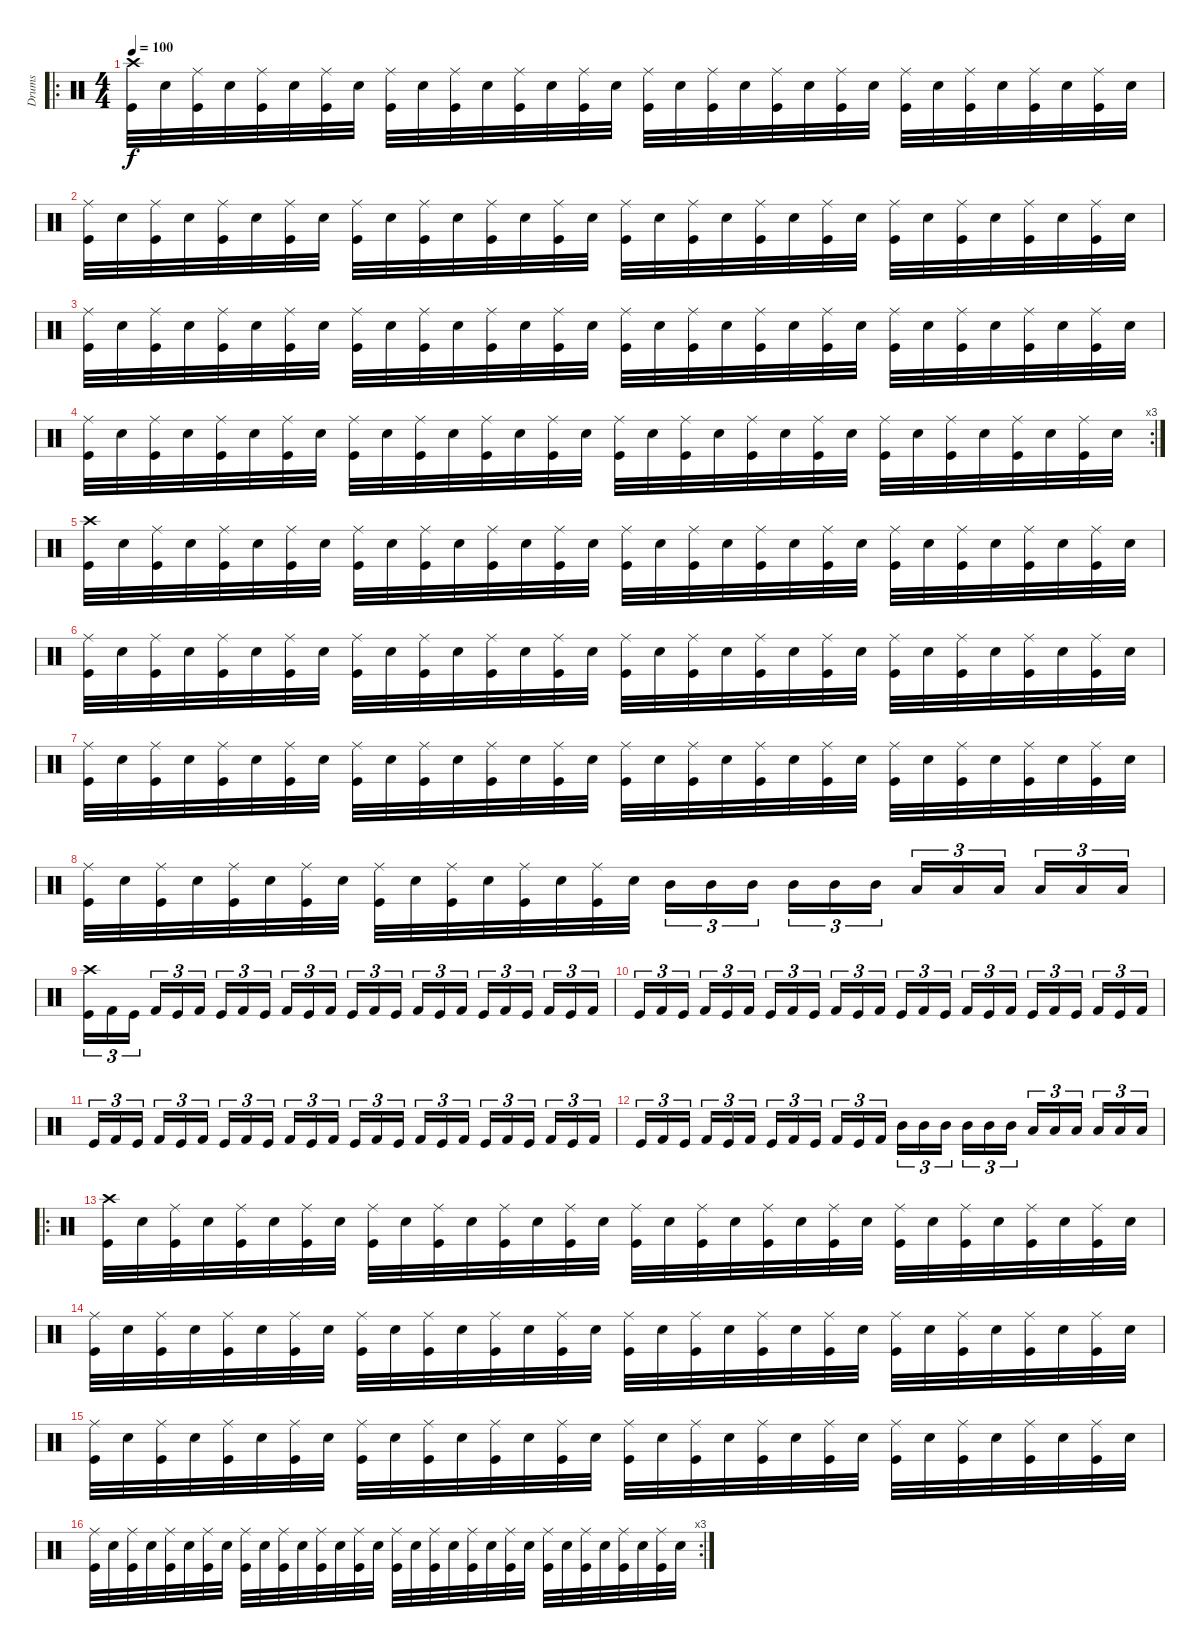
\track ("Drums" "Drums") {instrument percussion}
\staff {score}
\articulation defaults
\ro
\ts (4 4)
\tempo 100
\clef neutral
\ks c
("Crash high (hit)" "Kick (hit)").32{dy f} "Snare (hit) 2".32 ("Ride (middle)" "Kick (hit)").32 "Snare (hit) 2".32 ("Ride (middle)" "Kick (hit)").32 "Snare (hit) 2".32 ("Ride (middle)" "Kick (hit)").32 "Snare (hit) 2".32 ("Ride (middle)" "Kick (hit)").32 "Snare (hit) 2".32 ("Ride (middle)" "Kick (hit)").32 "Snare (hit) 2".32 ("Ride (middle)" "Kick (hit)").32 "Snare (hit) 2".32 ("Ride (middle)" "Kick (hit)").32 "Snare (hit) 2".32 ("Ride (middle)" "Kick (hit)").32 "Snare (hit) 2".32 ("Ride (middle)" "Kick (hit)").32 "Snare (hit) 2".32 ("Ride (middle)" "Kick (hit)").32 "Snare (hit) 2".32 ("Ride (middle)" "Kick (hit)").32 "Snare (hit) 2".32 ("Ride (middle)" "Kick (hit)").32 "Snare (hit) 2".32 ("Ride (middle)" "Kick (hit)").32 "Snare (hit) 2".32 ("Ride (middle)" "Kick (hit)").32 "Snare (hit) 2".32 ("Ride (middle)" "Kick (hit)").32 "Snare (hit) 2".32 |
("Ride (middle)" "Kick (hit)").32 "Snare (hit) 2".32 ("Ride (middle)" "Kick (hit)").32 "Snare (hit) 2".32 ("Ride (middle)" "Kick (hit)").32 "Snare (hit) 2".32 ("Ride (middle)" "Kick (hit)").32 "Snare (hit) 2".32 ("Ride (middle)" "Kick (hit)").32 "Snare (hit) 2".32 ("Ride (middle)" "Kick (hit)").32 "Snare (hit) 2".32 ("Ride (middle)" "Kick (hit)").32 "Snare (hit) 2".32 ("Ride (middle)" "Kick (hit)").32 "Snare (hit) 2".32 ("Ride (middle)" "Kick (hit)").32 "Snare (hit) 2".32 ("Ride (middle)" "Kick (hit)").32 "Snare (hit) 2".32 ("Ride (middle)" "Kick (hit)").32 "Snare (hit) 2".32 ("Ride (middle)" "Kick (hit)").32 "Snare (hit) 2".32 ("Ride (middle)" "Kick (hit)").32 "Snare (hit) 2".32 ("Ride (middle)" "Kick (hit)").32 "Snare (hit) 2".32 ("Ride (middle)" "Kick (hit)").32 "Snare (hit) 2".32 ("Ride (middle)" "Kick (hit)").32 "Snare (hit) 2".32 |
("Ride (middle)" "Kick (hit)").32 "Snare (hit) 2".32 ("Ride (middle)" "Kick (hit)").32 "Snare (hit) 2".32 ("Ride (middle)" "Kick (hit)").32 "Snare (hit) 2".32 ("Ride (middle)" "Kick (hit)").32 "Snare (hit) 2".32 ("Ride (middle)" "Kick (hit)").32 "Snare (hit) 2".32 ("Ride (middle)" "Kick (hit)").32 "Snare (hit) 2".32 ("Ride (middle)" "Kick (hit)").32 "Snare (hit) 2".32 ("Ride (middle)" "Kick (hit)").32 "Snare (hit) 2".32 ("Ride (middle)" "Kick (hit)").32 "Snare (hit) 2".32 ("Ride (middle)" "Kick (hit)").32 "Snare (hit) 2".32 ("Ride (middle)" "Kick (hit)").32 "Snare (hit) 2".32 ("Ride (middle)" "Kick (hit)").32 "Snare (hit) 2".32 ("Ride (middle)" "Kick (hit)").32 "Snare (hit) 2".32 ("Ride (middle)" "Kick (hit)").32 "Snare (hit) 2".32 ("Ride (middle)" "Kick (hit)").32 "Snare (hit) 2".32 ("Ride (middle)" "Kick (hit)").32 "Snare (hit) 2".32 |
\rc 3
("Ride (middle)" "Kick (hit)").32 "Snare (hit) 2".32 ("Ride (middle)" "Kick (hit)").32 "Snare (hit) 2".32 ("Ride (middle)" "Kick (hit)").32 "Snare (hit) 2".32 ("Ride (middle)" "Kick (hit)").32 "Snare (hit) 2".32 ("Ride (middle)" "Kick (hit)").32 "Snare (hit) 2".32 ("Ride (middle)" "Kick (hit)").32 "Snare (hit) 2".32 ("Ride (middle)" "Kick (hit)").32 "Snare (hit) 2".32 ("Ride (middle)" "Kick (hit)").32 "Snare (hit) 2".32 ("Ride (middle)" "Kick (hit)").32 "Snare (hit) 2".32 ("Ride (middle)" "Kick (hit)").32 "Snare (hit) 2".32 ("Ride (middle)" "Kick (hit)").32 "Snare (hit) 2".32 ("Ride (middle)" "Kick (hit)").32 "Snare (hit) 2".32 ("Ride (middle)" "Kick (hit)").32 "Snare (hit) 2".32 ("Ride (middle)" "Kick (hit)").32 "Snare (hit) 2".32 ("Ride (middle)" "Kick (hit)").32 "Snare (hit) 2".32 ("Ride (middle)" "Kick (hit)").32 "Snare (hit) 2".32 |
("Crash high (hit)" "Kick (hit)").32 "Snare (hit) 2".32 ("Ride (middle)" "Kick (hit)").32 "Snare (hit) 2".32 ("Ride (middle)" "Kick (hit)").32 "Snare (hit) 2".32 ("Ride (middle)" "Kick (hit)").32 "Snare (hit) 2".32 ("Ride (middle)" "Kick (hit)").32 "Snare (hit) 2".32 ("Ride (middle)" "Kick (hit)").32 "Snare (hit) 2".32 ("Ride (middle)" "Kick (hit)").32 "Snare (hit) 2".32 ("Ride (middle)" "Kick (hit)").32 "Snare (hit) 2".32 ("Ride (middle)" "Kick (hit)").32 "Snare (hit) 2".32 ("Ride (middle)" "Kick (hit)").32 "Snare (hit) 2".32 ("Ride (middle)" "Kick (hit)").32 "Snare (hit) 2".32 ("Ride (middle)" "Kick (hit)").32 "Snare (hit) 2".32 ("Ride (middle)" "Kick (hit)").32 "Snare (hit) 2".32 ("Ride (middle)" "Kick (hit)").32 "Snare (hit) 2".32 ("Ride (middle)" "Kick (hit)").32 "Snare (hit) 2".32 ("Ride (middle)" "Kick (hit)").32 "Snare (hit) 2".32 |
("Ride (middle)" "Kick (hit)").32 "Snare (hit) 2".32 ("Ride (middle)" "Kick (hit)").32 "Snare (hit) 2".32 ("Ride (middle)" "Kick (hit)").32 "Snare (hit) 2".32 ("Ride (middle)" "Kick (hit)").32 "Snare (hit) 2".32 ("Ride (middle)" "Kick (hit)").32 "Snare (hit) 2".32 ("Ride (middle)" "Kick (hit)").32 "Snare (hit) 2".32 ("Ride (middle)" "Kick (hit)").32 "Snare (hit) 2".32 ("Ride (middle)" "Kick (hit)").32 "Snare (hit) 2".32 ("Ride (middle)" "Kick (hit)").32 "Snare (hit) 2".32 ("Ride (middle)" "Kick (hit)").32 "Snare (hit) 2".32 ("Ride (middle)" "Kick (hit)").32 "Snare (hit) 2".32 ("Ride (middle)" "Kick (hit)").32 "Snare (hit) 2".32 ("Ride (middle)" "Kick (hit)").32 "Snare (hit) 2".32 ("Ride (middle)" "Kick (hit)").32 "Snare (hit) 2".32 ("Ride (middle)" "Kick (hit)").32 "Snare (hit) 2".32 ("Ride (middle)" "Kick (hit)").32 "Snare (hit) 2".32 |
("Ride (middle)" "Kick (hit)").32 "Snare (hit) 2".32 ("Ride (middle)" "Kick (hit)").32 "Snare (hit) 2".32 ("Ride (middle)" "Kick (hit)").32 "Snare (hit) 2".32 ("Ride (middle)" "Kick (hit)").32 "Snare (hit) 2".32 ("Ride (middle)" "Kick (hit)").32 "Snare (hit) 2".32 ("Ride (middle)" "Kick (hit)").32 "Snare (hit) 2".32 ("Ride (middle)" "Kick (hit)").32 "Snare (hit) 2".32 ("Ride (middle)" "Kick (hit)").32 "Snare (hit) 2".32 ("Ride (middle)" "Kick (hit)").32 "Snare (hit) 2".32 ("Ride (middle)" "Kick (hit)").32 "Snare (hit) 2".32 ("Ride (middle)" "Kick (hit)").32 "Snare (hit) 2".32 ("Ride (middle)" "Kick (hit)").32 "Snare (hit) 2".32 ("Ride (middle)" "Kick (hit)").32 "Snare (hit) 2".32 ("Ride (middle)" "Kick (hit)").32 "Snare (hit) 2".32 ("Ride (middle)" "Kick (hit)").32 "Snare (hit) 2".32 ("Ride (middle)" "Kick (hit)").32 "Snare (hit) 2".32 |
("Ride (middle)" "Kick (hit)").32 "Snare (hit) 2".32 ("Ride (middle)" "Kick (hit)").32 "Snare (hit) 2".32 ("Ride (middle)" "Kick (hit)").32 "Snare (hit) 2".32 ("Ride (middle)" "Kick (hit)").32 "Snare (hit) 2".32 ("Ride (middle)" "Kick (hit)").32 "Snare (hit) 2".32 ("Ride (middle)" "Kick (hit)").32 "Snare (hit) 2".32 ("Ride (middle)" "Kick (hit)").32 "Snare (hit) 2".32 ("Ride (middle)" "Kick (hit)").32 "Snare (hit) 2".32 "Mid Tom (hit)".16{tu (3 2)} "Mid Tom (hit)".16{tu (3 2)} "Mid Tom (hit)".16{tu (3 2)} "Mid Tom (hit)".16{tu (3 2)} "Mid Tom (hit)".16{tu (3 2)} "Mid Tom (hit)".16{tu (3 2)} "Low Floor Tom (hit)".16{tu (3 2)} "Low Floor Tom (hit)".16{tu (3 2)} "Low Floor Tom (hit)".16{tu (3 2)} "Low Floor Tom (hit)".16{tu (3 2)} "Low Floor Tom (hit)".16{tu (3 2)} "Low Floor Tom (hit)".16{tu (3 2)} |
("Crash high (hit)" "Kick (hit)").16{tu (3 2)} "Kick (hit) 2".16{tu (3 2)} "Kick (hit)".16{tu (3 2)} "Kick (hit) 2".16{tu (3 2)} "Kick (hit)".16{tu (3 2)} "Kick (hit) 2".16{tu (3 2)} "Kick (hit)".16{tu (3 2)} "Kick (hit) 2".16{tu (3 2)} "Kick (hit)".16{tu (3 2)} "Kick (hit) 2".16{tu (3 2)} "Kick (hit)".16{tu (3 2)} "Kick (hit) 2".16{tu (3 2)} "Kick (hit)".16{tu (3 2)} "Kick (hit) 2".16{tu (3 2)} "Kick (hit)".16{tu (3 2)} "Kick (hit) 2".16{tu (3 2)} "Kick (hit)".16{tu (3 2)} "Kick (hit) 2".16{tu (3 2)} "Kick (hit)".16{tu (3 2)} "Kick (hit) 2".16{tu (3 2)} "Kick (hit)".16{tu (3 2)} "Kick (hit) 2".16{tu (3 2)} "Kick (hit)".16{tu (3 2)} "Kick (hit) 2".16{tu (3 2)} |
"Kick (hit)".16{tu (3 2)} "Kick (hit) 2".16{tu (3 2)} "Kick (hit)".16{tu (3 2)} "Kick (hit) 2".16{tu (3 2)} "Kick (hit)".16{tu (3 2)} "Kick (hit) 2".16{tu (3 2)} "Kick (hit)".16{tu (3 2)} "Kick (hit) 2".16{tu (3 2)} "Kick (hit)".16{tu (3 2)} "Kick (hit) 2".16{tu (3 2)} "Kick (hit)".16{tu (3 2)} "Kick (hit) 2".16{tu (3 2)} "Kick (hit)".16{tu (3 2)} "Kick (hit) 2".16{tu (3 2)} "Kick (hit)".16{tu (3 2)} "Kick (hit) 2".16{tu (3 2)} "Kick (hit)".16{tu (3 2)} "Kick (hit) 2".16{tu (3 2)} "Kick (hit)".16{tu (3 2)} "Kick (hit) 2".16{tu (3 2)} "Kick (hit)".16{tu (3 2)} "Kick (hit) 2".16{tu (3 2)} "Kick (hit)".16{tu (3 2)} "Kick (hit) 2".16{tu (3 2)} |
"Kick (hit)".16{tu (3 2)} "Kick (hit) 2".16{tu (3 2)} "Kick (hit)".16{tu (3 2)} "Kick (hit) 2".16{tu (3 2)} "Kick (hit)".16{tu (3 2)} "Kick (hit) 2".16{tu (3 2)} "Kick (hit)".16{tu (3 2)} "Kick (hit) 2".16{tu (3 2)} "Kick (hit)".16{tu (3 2)} "Kick (hit) 2".16{tu (3 2)} "Kick (hit)".16{tu (3 2)} "Kick (hit) 2".16{tu (3 2)} "Kick (hit)".16{tu (3 2)} "Kick (hit) 2".16{tu (3 2)} "Kick (hit)".16{tu (3 2)} "Kick (hit) 2".16{tu (3 2)} "Kick (hit)".16{tu (3 2)} "Kick (hit) 2".16{tu (3 2)} "Kick (hit)".16{tu (3 2)} "Kick (hit) 2".16{tu (3 2)} "Kick (hit)".16{tu (3 2)} "Kick (hit) 2".16{tu (3 2)} "Kick (hit)".16{tu (3 2)} "Kick (hit) 2".16{tu (3 2)} |
"Kick (hit)".16{tu (3 2)} "Kick (hit) 2".16{tu (3 2)} "Kick (hit)".16{tu (3 2)} "Kick (hit) 2".16{tu (3 2)} "Kick (hit)".16{tu (3 2)} "Kick (hit) 2".16{tu (3 2)} "Kick (hit)".16{tu (3 2)} "Kick (hit) 2".16{tu (3 2)} "Kick (hit)".16{tu (3 2)} "Kick (hit) 2".16{tu (3 2)} "Kick (hit)".16{tu (3 2)} "Kick (hit) 2".16{tu (3 2)} "Mid Tom (hit)".16{tu (3 2)} "Mid Tom (hit)".16{tu (3 2)} "Mid Tom (hit)".16{tu (3 2)} "Mid Tom (hit)".16{tu (3 2)} "Mid Tom (hit)".16{tu (3 2)} "Mid Tom (hit)".16{tu (3 2)} "Low Floor Tom (hit)".16{tu (3 2)} "Low Floor Tom (hit)".16{tu (3 2)} "Low Floor Tom (hit)".16{tu (3 2)} "Low Floor Tom (hit)".16{tu (3 2)} "Low Floor Tom (hit)".16{tu (3 2)} "Low Floor Tom (hit)".16{tu (3 2)} |
\ro
("Crash high (hit)" "Kick (hit)").32 "Snare (hit) 2".32 ("Ride (middle)" "Kick (hit)").32 "Snare (hit) 2".32 ("Ride (middle)" "Kick (hit)").32 "Snare (hit) 2".32 ("Ride (middle)" "Kick (hit)").32 "Snare (hit) 2".32 ("Ride (middle)" "Kick (hit)").32 "Snare (hit) 2".32 ("Ride (middle)" "Kick (hit)").32 "Snare (hit) 2".32 ("Ride (middle)" "Kick (hit)").32 "Snare (hit) 2".32 ("Ride (middle)" "Kick (hit)").32 "Snare (hit) 2".32 ("Ride (middle)" "Kick (hit)").32 "Snare (hit) 2".32 ("Ride (middle)" "Kick (hit)").32 "Snare (hit) 2".32 ("Ride (middle)" "Kick (hit)").32 "Snare (hit) 2".32 ("Ride (middle)" "Kick (hit)").32 "Snare (hit) 2".32 ("Ride (middle)" "Kick (hit)").32 "Snare (hit) 2".32 ("Ride (middle)" "Kick (hit)").32 "Snare (hit) 2".32 ("Ride (middle)" "Kick (hit)").32 "Snare (hit) 2".32 ("Ride (middle)" "Kick (hit)").32 "Snare (hit) 2".32 |
("Ride (middle)" "Kick (hit)").32 "Snare (hit) 2".32 ("Ride (middle)" "Kick (hit)").32 "Snare (hit) 2".32 ("Ride (middle)" "Kick (hit)").32 "Snare (hit) 2".32 ("Ride (middle)" "Kick (hit)").32 "Snare (hit) 2".32 ("Ride (middle)" "Kick (hit)").32 "Snare (hit) 2".32 ("Ride (middle)" "Kick (hit)").32 "Snare (hit) 2".32 ("Ride (middle)" "Kick (hit)").32 "Snare (hit) 2".32 ("Ride (middle)" "Kick (hit)").32 "Snare (hit) 2".32 ("Ride (middle)" "Kick (hit)").32 "Snare (hit) 2".32 ("Ride (middle)" "Kick (hit)").32 "Snare (hit) 2".32 ("Ride (middle)" "Kick (hit)").32 "Snare (hit) 2".32 ("Ride (middle)" "Kick (hit)").32 "Snare (hit) 2".32 ("Ride (middle)" "Kick (hit)").32 "Snare (hit) 2".32 ("Ride (middle)" "Kick (hit)").32 "Snare (hit) 2".32 ("Ride (middle)" "Kick (hit)").32 "Snare (hit) 2".32 ("Ride (middle)" "Kick (hit)").32 "Snare (hit) 2".32 |
("Ride (middle)" "Kick (hit)").32 "Snare (hit) 2".32 ("Ride (middle)" "Kick (hit)").32 "Snare (hit) 2".32 ("Ride (middle)" "Kick (hit)").32 "Snare (hit) 2".32 ("Ride (middle)" "Kick (hit)").32 "Snare (hit) 2".32 ("Ride (middle)" "Kick (hit)").32 "Snare (hit) 2".32 ("Ride (middle)" "Kick (hit)").32 "Snare (hit) 2".32 ("Ride (middle)" "Kick (hit)").32 "Snare (hit) 2".32 ("Ride (middle)" "Kick (hit)").32 "Snare (hit) 2".32 ("Ride (middle)" "Kick (hit)").32 "Snare (hit) 2".32 ("Ride (middle)" "Kick (hit)").32 "Snare (hit) 2".32 ("Ride (middle)" "Kick (hit)").32 "Snare (hit) 2".32 ("Ride (middle)" "Kick (hit)").32 "Snare (hit) 2".32 ("Ride (middle)" "Kick (hit)").32 "Snare (hit) 2".32 ("Ride (middle)" "Kick (hit)").32 "Snare (hit) 2".32 ("Ride (middle)" "Kick (hit)").32 "Snare (hit) 2".32 ("Ride (middle)" "Kick (hit)").32 "Snare (hit) 2".32 |
\rc 3
("Ride (middle)" "Kick (hit)").32 "Snare (hit) 2".32 ("Ride (middle)" "Kick (hit)").32 "Snare (hit) 2".32 ("Ride (middle)" "Kick (hit)").32 "Snare (hit) 2".32 ("Ride (middle)" "Kick (hit)").32 "Snare (hit) 2".32 ("Ride (middle)" "Kick (hit)").32 "Snare (hit) 2".32 ("Ride (middle)" "Kick (hit)").32 "Snare (hit) 2".32 ("Ride (middle)" "Kick (hit)").32 "Snare (hit) 2".32 ("Ride (middle)" "Kick (hit)").32 "Snare (hit) 2".32 ("Ride (middle)" "Kick (hit)").32 "Snare (hit) 2".32 ("Ride (middle)" "Kick (hit)").32 "Snare (hit) 2".32 ("Ride (middle)" "Kick (hit)").32 "Snare (hit) 2".32 ("Ride (middle)" "Kick (hit)").32 "Snare (hit) 2".32 ("Ride (middle)" "Kick (hit)").32 "Snare (hit) 2".32 ("Ride (middle)" "Kick (hit)").32 "Snare (hit) 2".32 ("Ride (middle)" "Kick (hit)").32 "Snare (hit) 2".32 ("Ride (middle)" "Kick (hit)").32 "Snare (hit) 2".32
